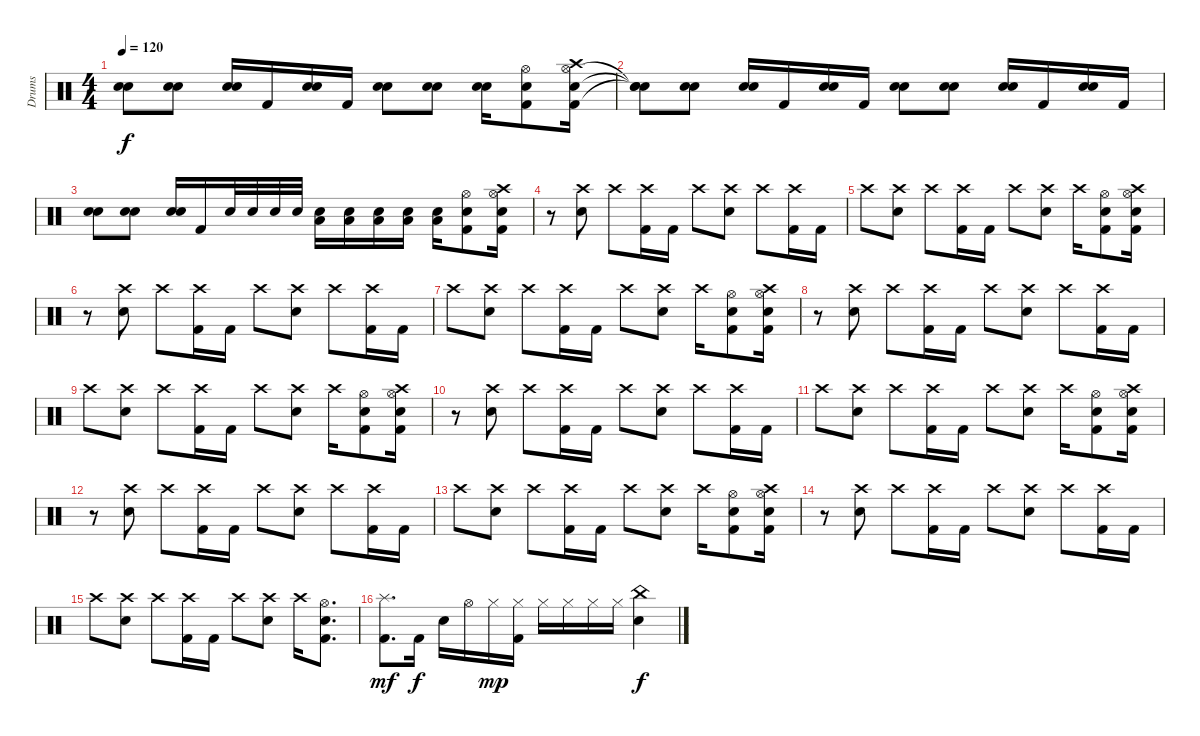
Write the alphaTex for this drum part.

\track ("Drums" "Drums") {instrument percussion}
\staff {score}
\articulation defaults
\ts (4 4)
\tempo 120
\clef neutral
\ks c
("Snare (hit) 2" "Snare (hit) 2").8{dy f} ("Snare (hit) 2" "Snare (hit) 2").8 ("Snare (hit) 2" "Snare (hit) 2").16 "Kick (hit) 2".16 ("Snare (hit) 2" "Snare (hit) 2").16 "Kick (hit) 2".16 ("Snare (hit) 2" "Snare (hit) 2").8 ("Snare (hit) 2" "Snare (hit) 2").8 ("Snare (hit) 2" "Snare (hit) 2").16 ("Hi-Hat (open)" "Snare (hit) 2" "Kick (hit) 2").8 ("Hi-Hat (open)" "Snare (hit) 2" "Kick (hit) 2" "Crash high (hit)").16 |
("Snare (hit) 2"{t} "Snare (hit) 2"{t} "Snare (hit)"{t}).8 ("Snare (hit) 2" "Snare (hit) 2").8 ("Snare (hit) 2" "Snare (hit) 2").16 "Kick (hit) 2".16 ("Snare (hit) 2" "Snare (hit) 2").16 "Kick (hit) 2".16 ("Snare (hit) 2" "Snare (hit) 2").8 ("Snare (hit) 2" "Snare (hit) 2").8 ("Snare (hit) 2" "Snare (hit) 2").16 "Kick (hit) 2".16 ("Snare (hit) 2" "Snare (hit) 2").16 "Kick (hit) 2".16 |
("Snare (hit) 2" "Snare (hit) 2").8 ("Snare (hit) 2" "Snare (hit) 2").8 ("Snare (hit) 2" "Snare (hit) 2").16 "Kick (hit) 2".16 "Snare (hit) 2".32 "Snare (hit) 2".32 "Snare (hit) 2".32 "Snare (hit) 2".32 ("Snare (hit) 2" "Low Tom (hit)").16 ("Snare (hit) 2" "Low Tom (hit)").16 ("Snare (hit) 2" "Low Tom (hit)").16 ("Snare (hit) 2" "Low Tom (hit)").16 ("Snare (hit) 2" "Low Tom (hit)").16 ("Hi-Hat (open)" "Snare (hit) 2" "Kick (hit) 2").8 ("Hi-Hat (open)" "Snare (hit) 2" "Kick (hit) 2" "Crash high (hit)").16 |
r.8 ("Crash high (hit)" "Snare (hit) 2").8 "Crash high (hit)".8 ("Crash high (hit)" "Kick (hit) 2").16 "Kick (hit) 2".16 "Crash high (hit)".8 ("Crash high (hit)" "Snare (hit) 2").8 "Crash high (hit)".8 ("Crash high (hit)" "Kick (hit) 2").16 "Kick (hit) 2".16 |
"Crash high (hit)".8 ("Crash high (hit)" "Snare (hit) 2").8 "Crash high (hit)".8 ("Crash high (hit)" "Kick (hit) 2").16 "Kick (hit) 2".16 "Crash high (hit)".8 ("Crash high (hit)" "Snare (hit) 2").8 "Crash high (hit)".16 ("Hi-Hat (open)" "Snare (hit) 2" "Kick (hit) 2").8 ("Hi-Hat (open)" "Snare (hit) 2" "Kick (hit) 2" "Crash high (hit)").16 |
r.8 ("Crash high (hit)" "Snare (hit) 2").8 "Crash high (hit)".8 ("Crash high (hit)" "Kick (hit) 2").16 "Kick (hit) 2".16 "Crash high (hit)".8 ("Crash high (hit)" "Snare (hit) 2").8 "Crash high (hit)".8 ("Crash high (hit)" "Kick (hit) 2").16 "Kick (hit) 2".16 |
"Crash high (hit)".8 ("Crash high (hit)" "Snare (hit) 2").8 "Crash high (hit)".8 ("Crash high (hit)" "Kick (hit) 2").16 "Kick (hit) 2".16 "Crash high (hit)".8 ("Crash high (hit)" "Snare (hit) 2").8 "Crash high (hit)".16 ("Hi-Hat (open)" "Snare (hit) 2" "Kick (hit) 2").8 ("Hi-Hat (open)" "Snare (hit) 2" "Kick (hit) 2" "Crash high (hit)").16 |
r.8 ("Crash high (hit)" "Snare (hit) 2").8 "Crash high (hit)".8 ("Crash high (hit)" "Kick (hit) 2").16 "Kick (hit) 2".16 "Crash high (hit)".8 ("Crash high (hit)" "Snare (hit) 2").8 "Crash high (hit)".8 ("Crash high (hit)" "Kick (hit) 2").16 "Kick (hit) 2".16 |
"Crash high (hit)".8 ("Crash high (hit)" "Snare (hit) 2").8 "Crash high (hit)".8 ("Crash high (hit)" "Kick (hit) 2").16 "Kick (hit) 2".16 "Crash high (hit)".8 ("Crash high (hit)" "Snare (hit) 2").8 "Crash high (hit)".16 ("Hi-Hat (open)" "Snare (hit) 2" "Kick (hit) 2").8 ("Hi-Hat (open)" "Snare (hit) 2" "Kick (hit) 2" "Crash high (hit)").16 |
r.8 ("Crash high (hit)" "Snare (hit) 2").8 "Crash high (hit)".8 ("Crash high (hit)" "Kick (hit) 2").16 "Kick (hit) 2".16 "Crash high (hit)".8 ("Crash high (hit)" "Snare (hit) 2").8 "Crash high (hit)".8 ("Crash high (hit)" "Kick (hit) 2").16 "Kick (hit) 2".16 |
"Crash high (hit)".8 ("Crash high (hit)" "Snare (hit) 2").8 "Crash high (hit)".8 ("Crash high (hit)" "Kick (hit) 2").16 "Kick (hit) 2".16 "Crash high (hit)".8 ("Crash high (hit)" "Snare (hit) 2").8 "Crash high (hit)".16 ("Hi-Hat (open)" "Snare (hit) 2" "Kick (hit) 2").8 ("Hi-Hat (open)" "Snare (hit) 2" "Kick (hit) 2" "Crash high (hit)").16 |
r.8 ("Crash high (hit)" "Snare (hit) 2").8 "Crash high (hit)".8 ("Crash high (hit)" "Kick (hit) 2").16 "Kick (hit) 2".16 "Crash high (hit)".8 ("Crash high (hit)" "Snare (hit) 2").8 "Crash high (hit)".8 ("Crash high (hit)" "Kick (hit) 2").16 "Kick (hit) 2".16 |
"Crash high (hit)".8 ("Crash high (hit)" "Snare (hit) 2").8 "Crash high (hit)".8 ("Crash high (hit)" "Kick (hit) 2").16 "Kick (hit) 2".16 "Crash high (hit)".8 ("Crash high (hit)" "Snare (hit) 2").8 "Crash high (hit)".16 ("Hi-Hat (open)" "Snare (hit) 2" "Kick (hit) 2").8 ("Hi-Hat (open)" "Snare (hit) 2" "Kick (hit) 2" "Crash high (hit)").16 |
r.8 ("Crash high (hit)" "Snare (hit) 2").8 "Crash high (hit)".8 ("Crash high (hit)" "Kick (hit) 2").16 "Kick (hit) 2".16 "Crash high (hit)".8 ("Crash high (hit)" "Snare (hit) 2").8 "Crash high (hit)".8 ("Crash high (hit)" "Kick (hit) 2").16 "Kick (hit) 2".16 |
"Crash high (hit)".8 ("Crash high (hit)" "Snare (hit) 2").8 "Crash high (hit)".8 ("Crash high (hit)" "Kick (hit) 2").16 "Kick (hit) 2".16 "Crash high (hit)".8 ("Crash high (hit)" "Snare (hit) 2").8 "Crash high (hit)".16 ("Hi-Hat (open)" "Snare (hit) 2" "Kick (hit) 2").8{d} |
("Kick (hit) 2" "Splash (hit)").8{d dy mf} "Kick (hit) 2".16{dy f} "Snare (hit) 2".16 "Hi-Hat (open)".16 "Hi-Hat (closed)".16{dy mp} ("Kick (hit) 2" "Hi-Hat (closed)").16 "Hi-Hat (closed)".16 "Hi-Hat (closed)".16 "Hi-Hat (closed)".16 "Hi-Hat (closed)".16 ("Snare (hit) 2" "China (hit)").4{dy f}
